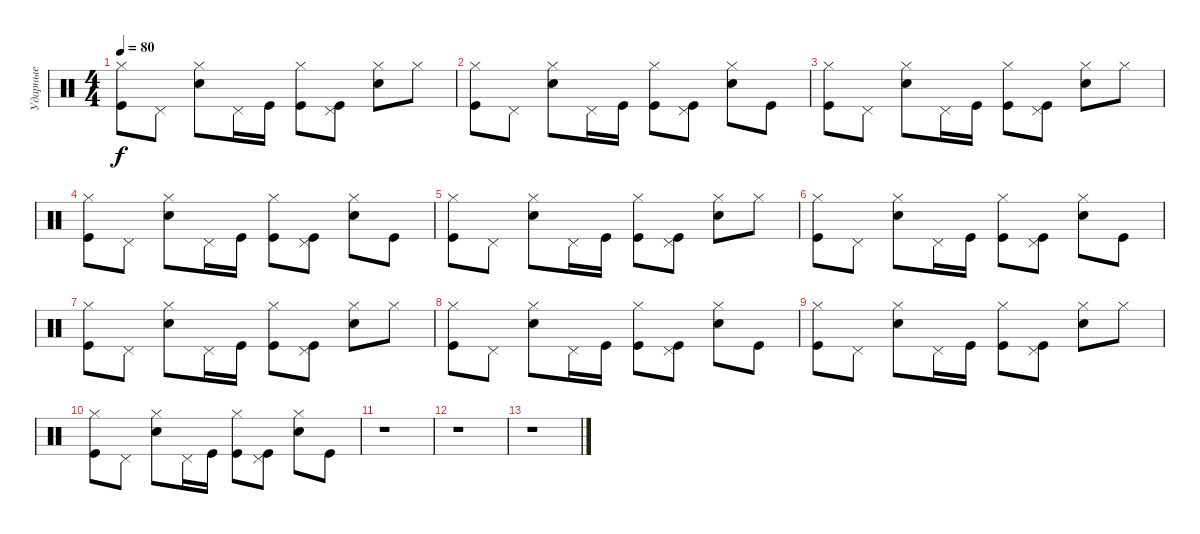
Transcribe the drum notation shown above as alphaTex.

\track ("Ударные" "Ударные") {instrument percussion}
\staff {score}
\articulation defaults
\ts (4 4)
\tempo 80
\clef neutral
\ks c
("Kick (hit)" "Hi-Hat (closed)").8{dy f} "Pedal Hi-Hat (hit)".8 ("Snare (hit) 2" "Hi-Hat (closed)").8 "Pedal Hi-Hat (hit)".16 "Kick (hit)".16 ("Kick (hit)" "Hi-Hat (closed)").8 ("Kick (hit)" "Pedal Hi-Hat (hit)").8 ("Snare (hit) 2" "Hi-Hat (closed)").8 "Hi-Hat (closed)".8 |
("Kick (hit)" "Hi-Hat (closed)").8 "Pedal Hi-Hat (hit)".8 ("Snare (hit) 2" "Hi-Hat (closed)").8 "Pedal Hi-Hat (hit)".16 "Kick (hit)".16 ("Kick (hit)" "Hi-Hat (closed)").8 ("Kick (hit)" "Pedal Hi-Hat (hit)").8 ("Snare (hit) 2" "Hi-Hat (closed)").8 "Kick (hit)".8 |
("Kick (hit)" "Hi-Hat (closed)").8 "Pedal Hi-Hat (hit)".8 ("Snare (hit) 2" "Hi-Hat (closed)").8 "Pedal Hi-Hat (hit)".16 "Kick (hit)".16 ("Kick (hit)" "Hi-Hat (closed)").8 ("Kick (hit)" "Pedal Hi-Hat (hit)").8 ("Snare (hit) 2" "Hi-Hat (closed)").8 "Hi-Hat (closed)".8 |
("Kick (hit)" "Hi-Hat (closed)").8 "Pedal Hi-Hat (hit)".8 ("Snare (hit) 2" "Hi-Hat (closed)").8 "Pedal Hi-Hat (hit)".16 "Kick (hit)".16 ("Kick (hit)" "Hi-Hat (closed)").8 ("Kick (hit)" "Pedal Hi-Hat (hit)").8 ("Snare (hit) 2" "Hi-Hat (closed)").8 "Kick (hit)".8 |
("Kick (hit)" "Hi-Hat (closed)").8 "Pedal Hi-Hat (hit)".8 ("Snare (hit) 2" "Hi-Hat (closed)").8 "Pedal Hi-Hat (hit)".16 "Kick (hit)".16 ("Kick (hit)" "Hi-Hat (closed)").8 ("Kick (hit)" "Pedal Hi-Hat (hit)").8 ("Snare (hit) 2" "Hi-Hat (closed)").8 "Hi-Hat (closed)".8 |
("Kick (hit)" "Hi-Hat (closed)").8 "Pedal Hi-Hat (hit)".8 ("Snare (hit) 2" "Hi-Hat (closed)").8 "Pedal Hi-Hat (hit)".16 "Kick (hit)".16 ("Kick (hit)" "Hi-Hat (closed)").8 ("Kick (hit)" "Pedal Hi-Hat (hit)").8 ("Snare (hit) 2" "Hi-Hat (closed)").8 "Kick (hit)".8 |
("Kick (hit)" "Hi-Hat (closed)").8 "Pedal Hi-Hat (hit)".8 ("Snare (hit) 2" "Hi-Hat (closed)").8 "Pedal Hi-Hat (hit)".16 "Kick (hit)".16 ("Kick (hit)" "Hi-Hat (closed)").8 ("Kick (hit)" "Pedal Hi-Hat (hit)").8 ("Snare (hit) 2" "Hi-Hat (closed)").8 "Hi-Hat (closed)".8 |
("Kick (hit)" "Hi-Hat (closed)").8 "Pedal Hi-Hat (hit)".8 ("Snare (hit) 2" "Hi-Hat (closed)").8 "Pedal Hi-Hat (hit)".16 "Kick (hit)".16 ("Kick (hit)" "Hi-Hat (closed)").8 ("Kick (hit)" "Pedal Hi-Hat (hit)").8 ("Snare (hit) 2" "Hi-Hat (closed)").8 "Kick (hit)".8 |
("Kick (hit)" "Hi-Hat (closed)").8 "Pedal Hi-Hat (hit)".8 ("Snare (hit) 2" "Hi-Hat (closed)").8 "Pedal Hi-Hat (hit)".16 "Kick (hit)".16 ("Kick (hit)" "Hi-Hat (closed)").8 ("Kick (hit)" "Pedal Hi-Hat (hit)").8 ("Snare (hit) 2" "Hi-Hat (closed)").8 "Hi-Hat (closed)".8 |
("Kick (hit)" "Hi-Hat (closed)").8 "Pedal Hi-Hat (hit)".8 ("Snare (hit) 2" "Hi-Hat (closed)").8 "Pedal Hi-Hat (hit)".16 "Kick (hit)".16 ("Kick (hit)" "Hi-Hat (closed)").8 ("Kick (hit)" "Pedal Hi-Hat (hit)").8 ("Snare (hit) 2" "Hi-Hat (closed)").8 "Kick (hit)".8 |
r.1 |
r.1 |
r.1
